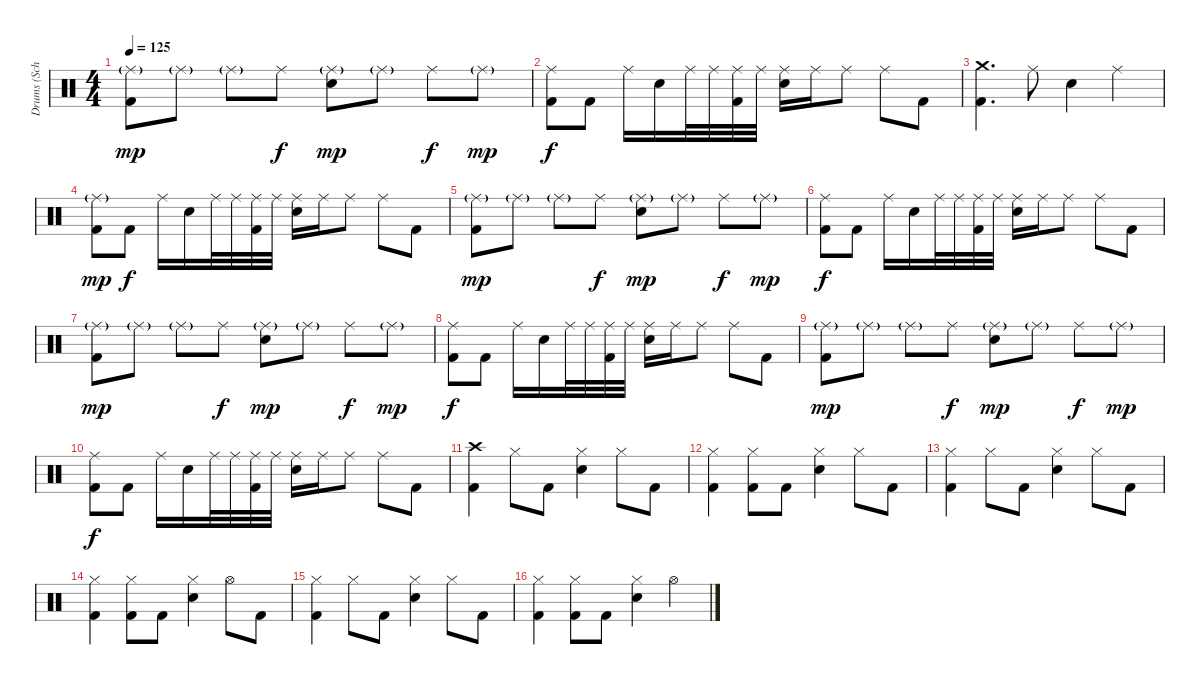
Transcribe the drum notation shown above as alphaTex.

\track ("Drums (Schill)" "Drums (Sch") {instrument percussion}
\staff {score}
\articulation defaults
\ts (4 4)
\tempo 125
\clef neutral
\ks c
("Ride (middle)"{g} "Kick (hit) 2").8{dy mp} "Ride (middle)"{g}.8 "Ride (middle)"{g}.8 "Ride (middle)".8{dy f} ("Ride (middle)"{g} "Electric Snare (hit)").8{dy mp} "Ride (middle)"{g}.8 "Ride (middle)".8{dy f} "Ride (middle)"{g}.8{dy mp} |
("Ride (middle)" "Kick (hit) 2").8{dy f} "Kick (hit) 2".8 "Ride (middle)".16 "Electric Snare (hit)".16 "Ride (middle)".32 "Ride (middle)".32 ("Ride (middle)" "Kick (hit) 2").32 "Ride (middle)".32 ("Ride (middle)" "Electric Snare (hit)").16 "Ride (middle)".16 "Ride (middle)".8 "Ride (middle)".8 "Kick (hit) 2".8 |
("Crash medium (hit)" "Kick (hit) 2").4{d} "Ride (middle)".8 "Electric Snare (hit)".4 "Ride (middle)".4 |
("Ride (middle)"{g} "Kick (hit) 2").8{dy mp} "Kick (hit) 2".8{dy f} "Ride (middle)".16 "Electric Snare (hit)".16 "Ride (middle)".32 "Ride (middle)".32 ("Ride (middle)" "Kick (hit) 2").32 "Ride (middle)".32 ("Ride (middle)" "Electric Snare (hit)").16 "Ride (middle)".16 "Ride (middle)".8 "Ride (middle)".8 "Kick (hit) 2".8 |
("Ride (middle)"{g} "Kick (hit) 2").8{dy mp} "Ride (middle)"{g}.8 "Ride (middle)"{g}.8 "Ride (middle)".8{dy f} ("Ride (middle)"{g} "Electric Snare (hit)").8{dy mp} "Ride (middle)"{g}.8 "Ride (middle)".8{dy f} "Ride (middle)"{g}.8{dy mp} |
("Ride (middle)" "Kick (hit) 2").8{dy f} "Kick (hit) 2".8 "Ride (middle)".16 "Electric Snare (hit)".16 "Ride (middle)".32 "Ride (middle)".32 ("Ride (middle)" "Kick (hit) 2").32 "Ride (middle)".32 ("Ride (middle)" "Electric Snare (hit)").16 "Ride (middle)".16 "Ride (middle)".8 "Ride (middle)".8 "Kick (hit) 2".8 |
("Ride (middle)"{g} "Kick (hit) 2").8{dy mp} "Ride (middle)"{g}.8 "Ride (middle)"{g}.8 "Ride (middle)".8{dy f} ("Ride (middle)"{g} "Electric Snare (hit)").8{dy mp} "Ride (middle)"{g}.8 "Ride (middle)".8{dy f} "Ride (middle)"{g}.8{dy mp} |
("Ride (middle)" "Kick (hit) 2").8{dy f} "Kick (hit) 2".8 "Ride (middle)".16 "Electric Snare (hit)".16 "Ride (middle)".32 "Ride (middle)".32 ("Ride (middle)" "Kick (hit) 2").32 "Ride (middle)".32 ("Ride (middle)" "Electric Snare (hit)").16 "Ride (middle)".16 "Ride (middle)".8 "Ride (middle)".8 "Kick (hit) 2".8 |
("Ride (middle)"{g} "Kick (hit) 2").8{dy mp} "Ride (middle)"{g}.8 "Ride (middle)"{g}.8 "Ride (middle)".8{dy f} ("Ride (middle)"{g} "Electric Snare (hit)").8{dy mp} "Ride (middle)"{g}.8 "Ride (middle)".8{dy f} "Ride (middle)"{g}.8{dy mp} |
("Ride (middle)" "Kick (hit) 2").8{dy f} "Kick (hit) 2".8 "Ride (middle)".16 "Electric Snare (hit)".16 "Ride (middle)".32 "Ride (middle)".32 ("Ride (middle)" "Kick (hit) 2").32 "Ride (middle)".32 ("Ride (middle)" "Electric Snare (hit)").16 "Ride (middle)".16 "Ride (middle)".8 "Ride (middle)".8 "Kick (hit) 2".8 |
("Crash high (hit)" "Kick (hit) 2").4 "Hi-Hat (closed)".8 "Kick (hit) 2".8 ("Hi-Hat (closed)" "Electric Snare (hit)").4 "Hi-Hat (closed)".8 "Kick (hit) 2".8 |
("Hi-Hat (closed)" "Kick (hit) 2").4 ("Hi-Hat (closed)" "Kick (hit) 2").8 "Kick (hit) 2".8 ("Hi-Hat (closed)" "Electric Snare (hit)").4 "Hi-Hat (closed)".8 "Kick (hit) 2".8 |
("Hi-Hat (closed)" "Kick (hit) 2").4 "Hi-Hat (closed)".8 "Kick (hit) 2".8 ("Hi-Hat (closed)" "Electric Snare (hit)").4 "Hi-Hat (closed)".8 "Kick (hit) 2".8 |
("Hi-Hat (closed)" "Kick (hit) 2").4 ("Hi-Hat (closed)" "Kick (hit) 2").8 "Kick (hit) 2".8 ("Hi-Hat (closed)" "Electric Snare (hit)").4 "Hi-Hat (open)".8 "Kick (hit) 2".8 |
("Hi-Hat (closed)" "Kick (hit) 2").4 "Hi-Hat (closed)".8 "Kick (hit) 2".8 ("Hi-Hat (closed)" "Electric Snare (hit)").4 "Hi-Hat (closed)".8 "Kick (hit) 2".8 |
("Hi-Hat (closed)" "Kick (hit) 2").4 ("Hi-Hat (closed)" "Kick (hit) 2").8 "Kick (hit) 2".8 ("Hi-Hat (closed)" "Electric Snare (hit)").4 "Hi-Hat (open)".4
